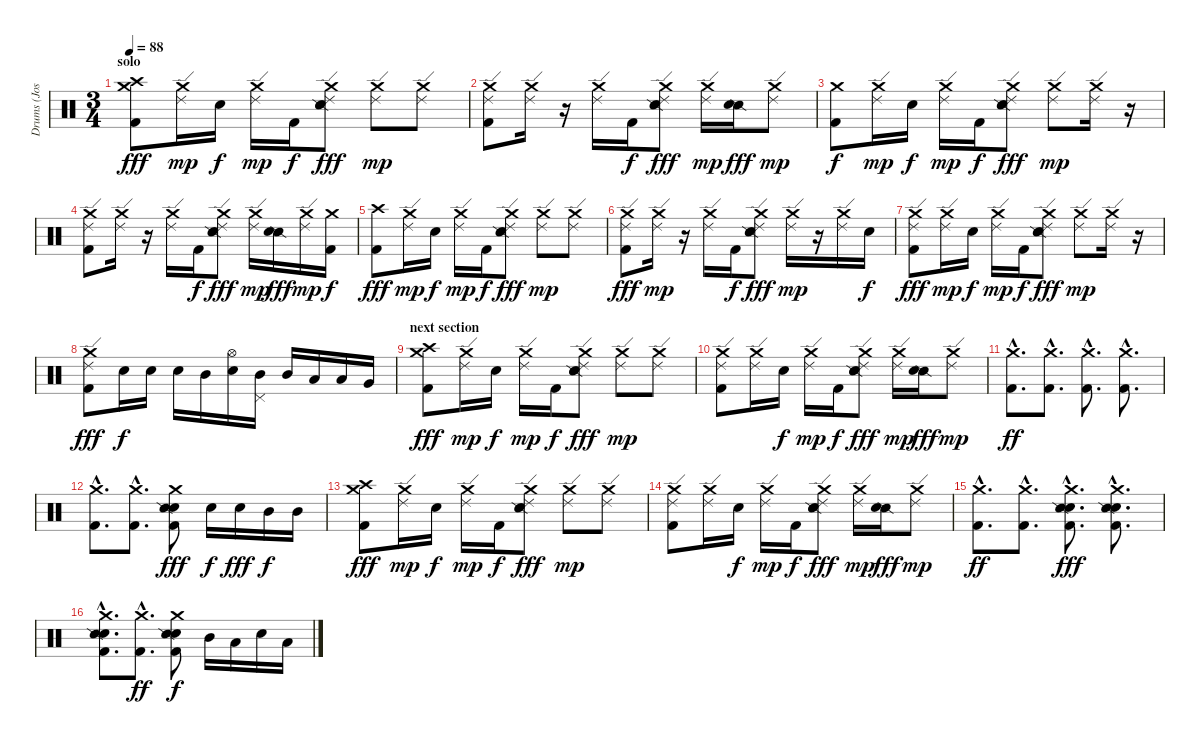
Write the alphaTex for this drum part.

\track ("Drums (Jose)" "Drums (Jos") {instrument percussion}
\staff {score}
\articulation defaults
\ts (3 4)
\section ("" "solo")
\tempo 88
\clef neutral
\ks c
("Crash medium (hit)" "Crash high (hit)" "Kick (hit) 2").8{dy fff} ("Ride (edge) 2" "Crash medium (hit)").16{dy mp} "Electric Snare (hit)".16{dy f} ("Ride (edge) 2" "Crash medium (hit)").16{dy mp} "Kick (hit) 2".16{dy f} ("Crash medium (hit)" "Ride (edge) 2" "Electric Snare (hit)" "Snare (side stick) 2").8{dy fff} ("Crash medium (hit)" "Ride (edge) 2").8{dy mp} ("Crash medium (hit)" "Ride (edge) 2").8 |
("Crash medium (hit)" "Ride (edge) 2" "Kick (hit) 2").8 ("Ride (edge) 2" "Crash medium (hit)").16 r.16 ("Ride (edge) 2" "Crash medium (hit)").16 "Kick (hit) 2".16{dy f} ("Crash medium (hit)" "Ride (edge) 2" "Electric Snare (hit)" "Snare (side stick) 2").8{dy fff} ("Crash medium (hit)" "Ride (edge) 2").16{dy mp} ("Snare (side stick) 2" "Electric Snare (hit)").16{dy fff} ("Crash medium (hit)" "Ride (edge) 2").8{dy mp} |
("Crash medium (hit)" "Kick (hit) 2").8{dy f} ("Ride (edge) 2" "Crash medium (hit)").16{dy mp} "Electric Snare (hit)".16{dy f} ("Ride (edge) 2" "Crash medium (hit)").16{dy mp} "Kick (hit) 2".16{dy f} ("Crash medium (hit)" "Ride (edge) 2" "Electric Snare (hit)" "Snare (side stick) 2").8{dy fff} ("Crash medium (hit)" "Ride (edge) 2").8{dy mp} ("Crash medium (hit)" "Ride (edge) 2").16 r.16 |
("Crash medium (hit)" "Ride (edge) 2" "Kick (hit) 2").8 ("Ride (edge) 2" "Crash medium (hit)").16 r.16 ("Ride (edge) 2" "Crash medium (hit)").16 "Kick (hit) 2".16{dy f} ("Crash medium (hit)" "Ride (edge) 2" "Electric Snare (hit)" "Snare (side stick) 2").8{dy fff} ("Crash medium (hit)" "Ride (edge) 2").16{dy mp} ("Snare (side stick) 2" "Electric Snare (hit)").16{dy fff} ("Crash medium (hit)" "Ride (edge) 2").16{dy mp} ("Crash medium (hit)" "Kick (hit) 2").16{dy f} |
("Crash high (hit)" "Kick (hit) 2").8{dy fff} ("Ride (edge) 2" "Crash medium (hit)").16{dy mp} "Electric Snare (hit)".16{dy f} ("Ride (edge) 2" "Crash medium (hit)").16{dy mp} "Kick (hit) 2".16{dy f} ("Crash medium (hit)" "Ride (edge) 2" "Electric Snare (hit)" "Snare (side stick) 2").8{dy fff} ("Crash medium (hit)" "Ride (edge) 2").8{dy mp} ("Crash medium (hit)" "Ride (edge) 2").8 |
("Crash medium (hit)" "Ride (edge) 2" "Kick (hit) 2").8{dy fff} ("Ride (edge) 2" "Crash medium (hit)").16{dy mp} r.16 ("Ride (edge) 2" "Crash medium (hit)").16 "Kick (hit) 2".16{dy f} ("Crash medium (hit)" "Ride (edge) 2" "Electric Snare (hit)" "Snare (side stick) 2").8{dy fff} ("Crash medium (hit)" "Ride (edge) 2").16{dy mp} r.16 ("Crash medium (hit)" "Ride (edge) 2").16 "Electric Snare (hit)".16{dy f} |
("Crash medium (hit)" "Ride (edge) 2" "Kick (hit) 2").8{dy fff} ("Ride (edge) 2" "Crash medium (hit)").16{dy mp} "Electric Snare (hit)".16{dy f} ("Ride (edge) 2" "Crash medium (hit)").16{dy mp} "Kick (hit) 2".16{dy f} ("Crash medium (hit)" "Ride (edge) 2" "Electric Snare (hit)" "Snare (side stick) 2").8{dy fff} ("Crash medium (hit)" "Ride (edge) 2").8{dy mp} ("Crash medium (hit)" "Ride (edge) 2").16 r.16 |
("Crash medium (hit)" "Ride (edge) 2" "Kick (hit) 2").8{dy fff} "Electric Snare (hit)".16{dy f} "Electric Snare (hit)".16 "Electric Snare (hit)".16 "Mid Tom (hit)".16 ("Hi-Hat (open)" "Electric Snare (hit)").16 ("Pedal Hi-Hat (hit)" "Mid Tom (hit)").16 "Mid Tom (hit)".16 "Low Tom (hit)".16 "Low Tom (hit)".16 "Very Low Tom (hit)".16 |
\section ("" "next section")
("Crash medium (hit)" "Crash high (hit)" "Kick (hit) 2").8{dy fff} ("Ride (edge) 2" "Crash medium (hit)").16{dy mp} "Electric Snare (hit)".16{dy f} ("Ride (edge) 2" "Crash medium (hit)").16{dy mp} "Kick (hit) 2".16{dy f} ("Crash medium (hit)" "Ride (edge) 2" "Electric Snare (hit)" "Snare (side stick) 2").8{dy fff} ("Crash medium (hit)" "Ride (edge) 2").8{dy mp} ("Crash medium (hit)" "Ride (edge) 2").8 |
("Crash medium (hit)" "Ride (edge) 2" "Kick (hit) 2").8 ("Ride (edge) 2" "Crash medium (hit)").16 "Electric Snare (hit)".16{dy f} ("Ride (edge) 2" "Crash medium (hit)").16{dy mp} "Kick (hit) 2".16{dy f} ("Crash medium (hit)" "Ride (edge) 2" "Electric Snare (hit)" "Snare (side stick) 2").8{dy fff} ("Crash medium (hit)" "Ride (edge) 2").16{dy mp} ("Snare (side stick) 2" "Electric Snare (hit)").16{dy fff} ("Crash medium (hit)" "Ride (edge) 2").8{dy mp} |
("Crash medium (hit)"{hac} "Kick (hit) 2"{hac}).8{d dy ff} ("Crash medium (hit)"{hac} "Kick (hit) 2"{hac}).8{d} ("Crash medium (hit)"{hac} "Kick (hit) 2"{hac}).8{d} ("Crash medium (hit)"{hac} "Kick (hit) 2"{hac}).8{d} |
("Crash medium (hit)"{hac} "Kick (hit) 2"{hac}).8{d} ("Crash medium (hit)"{hac} "Kick (hit) 2").8{d} ("Crash medium (hit)" "Kick (hit) 2" "Electric Snare (hit)" "Snare (side stick) 2").8{dy fff} "Electric Snare (hit)".16{dy f} "Electric Snare (hit)".16{dy fff} "Mid Tom (hit)".16{dy f} "Mid Tom (hit)".16 |
("Crash medium (hit)" "Crash high (hit)" "Kick (hit) 2").8{dy fff} ("Ride (edge) 2" "Crash medium (hit)").16{dy mp} "Electric Snare (hit)".16{dy f} ("Ride (edge) 2" "Crash medium (hit)").16{dy mp} "Kick (hit) 2".16{dy f} ("Crash medium (hit)" "Ride (edge) 2" "Electric Snare (hit)" "Snare (side stick) 2").8{dy fff} ("Crash medium (hit)" "Ride (edge) 2").8{dy mp} ("Crash medium (hit)" "Ride (edge) 2").8 |
("Crash medium (hit)" "Ride (edge) 2" "Kick (hit) 2").8 ("Ride (edge) 2" "Crash medium (hit)").16 "Electric Snare (hit)".16{dy f} ("Ride (edge) 2" "Crash medium (hit)").16{dy mp} "Kick (hit) 2".16{dy f} ("Crash medium (hit)" "Ride (edge) 2" "Electric Snare (hit)" "Snare (side stick) 2").8{dy fff} ("Crash medium (hit)" "Ride (edge) 2").16{dy mp} ("Snare (side stick) 2" "Electric Snare (hit)").16{dy fff} ("Crash medium (hit)" "Ride (edge) 2").8{dy mp} |
("Crash medium (hit)"{hac} "Kick (hit) 2"{hac}).8{d dy ff} ("Crash medium (hit)"{hac} "Kick (hit) 2"{hac}).8{d} ("Crash medium (hit)"{hac} "Kick (hit) 2"{hac} "Electric Snare (hit)"{hac} "Snare (side stick) 2"{hac}).8{d dy fff} ("Crash medium (hit)"{hac} "Kick (hit) 2"{hac} "Electric Snare (hit)"{hac} "Snare (side stick) 2"{hac}).8{d} |
("Crash medium (hit)"{hac} "Kick (hit) 2"{hac} "Electric Snare (hit)"{hac} "Snare (side stick) 2"{hac}).8{d} ("Crash medium (hit)"{hac} "Kick (hit) 2").8{d dy ff} ("Crash medium (hit)" "Kick (hit) 2" "Electric Snare (hit)" "Snare (side stick) 2").8{dy f} "Mid Tom (hit)".16 "Low Tom (hit)".16 "Electric Snare (hit)".16 "Low Tom (hit)".16
